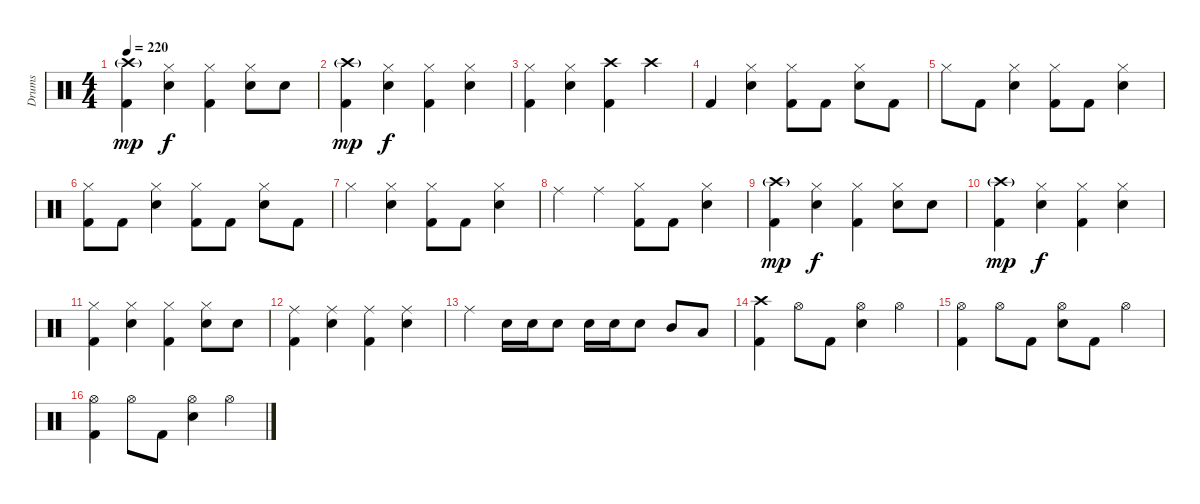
\track ("Drums" "Drums") {instrument percussion}
\staff {score}
\articulation defaults
\ts (4 4)
\tempo 220
\clef neutral
\ks c
("Crash high (hit)"{g} "Kick (hit) 2").4{dy mp} ("Hi-Hat (closed)" "Snare (hit) 2").4{dy f} ("Hi-Hat (closed)" "Kick (hit) 2").4 ("Hi-Hat (closed)" "Snare (hit) 2").8 "Snare (hit) 2".8 |
("Crash high (hit)"{g} "Kick (hit) 2").4{dy mp} ("Hi-Hat (closed)" "Snare (hit) 2").4{dy f} ("Hi-Hat (closed)" "Kick (hit) 2").4 ("Hi-Hat (closed)" "Snare (hit) 2").4 |
("Hi-Hat (closed)" "Kick (hit) 2").4 ("Hi-Hat (closed)" "Snare (hit) 2").4 ("Crash high (hit)" "Kick (hit) 2").4 "Crash high (hit)".4 |
"Kick (hit) 2".4 ("Hi-Hat (closed)" "Snare (hit) 2").4 ("Hi-Hat (closed)" "Kick (hit) 2").8 "Kick (hit) 2".8 ("Hi-Hat (closed)" "Snare (hit) 2").8 "Kick (hit) 2".8 |
"Hi-Hat (closed)".8 "Kick (hit) 2".8 ("Hi-Hat (closed)" "Snare (hit) 2").4 ("Hi-Hat (closed)" "Kick (hit) 2").8 "Kick (hit) 2".8 ("Hi-Hat (closed)" "Snare (hit) 2").4 |
("Hi-Hat (closed)" "Kick (hit) 2").8 "Kick (hit) 2".8 ("Hi-Hat (closed)" "Snare (hit) 2").4 ("Hi-Hat (closed)" "Kick (hit) 2").8 "Kick (hit) 2".8 ("Hi-Hat (closed)" "Snare (hit) 2").8 "Kick (hit) 2".8 |
"Hi-Hat (closed)".4 ("Hi-Hat (closed)" "Snare (hit) 2").4 ("Hi-Hat (closed)" "Kick (hit) 2").8 "Kick (hit) 2".8 ("Hi-Hat (closed)" "Snare (hit) 2").4 |
"Ride (middle)".4 "Ride (middle)".4 ("Hi-Hat (closed)" "Kick (hit) 2").8 "Kick (hit) 2".8 ("Hi-Hat (closed)" "Snare (hit) 2").4 |
("Crash high (hit)"{g} "Kick (hit) 2").4{dy mp} ("Hi-Hat (closed)" "Snare (hit) 2").4{dy f} ("Hi-Hat (closed)" "Kick (hit) 2").4 ("Hi-Hat (closed)" "Snare (hit) 2").8 "Snare (hit) 2".8 |
("Crash high (hit)"{g} "Kick (hit) 2").4{dy mp} ("Hi-Hat (closed)" "Snare (hit) 2").4{dy f} ("Hi-Hat (closed)" "Kick (hit) 2").4 ("Hi-Hat (closed)" "Snare (hit) 2").4 |
("Hi-Hat (closed)" "Kick (hit) 2").4 ("Hi-Hat (closed)" "Snare (hit) 2").4 ("Hi-Hat (closed)" "Kick (hit) 2").4 ("Hi-Hat (closed)" "Snare (hit) 2").8 "Snare (hit) 2".8 |
("Ride (middle)" "Kick (hit) 2").4 ("Ride (middle)" "Snare (hit) 2").4 ("Ride (middle)" "Kick (hit) 2").4 ("Ride (middle)" "Snare (hit) 2").4 |
"Ride (middle)".4 "Snare (hit) 2".16 "Snare (hit) 2".16 "Snare (hit) 2".8 "Snare (hit) 2".16 "Snare (hit) 2".16 "Snare (hit) 2".8 "Mid Tom (hit)".8 "Low Tom (hit)".8 |
("Crash high (hit)" "Kick (hit) 2").4 "Hi-Hat (open)".8 "Kick (hit) 2".8 ("Hi-Hat (open)" "Snare (hit) 2").4 "Hi-Hat (open)".4 |
("Hi-Hat (open)" "Kick (hit) 2").4 "Hi-Hat (open)".8 "Kick (hit) 2".8 ("Hi-Hat (open)" "Snare (hit) 2").8 "Kick (hit) 2".8 "Hi-Hat (open)".4 |
("Hi-Hat (open)" "Kick (hit) 2").4 "Hi-Hat (open)".8 "Kick (hit) 2".8 ("Hi-Hat (open)" "Snare (hit) 2").4 "Hi-Hat (open)".4
